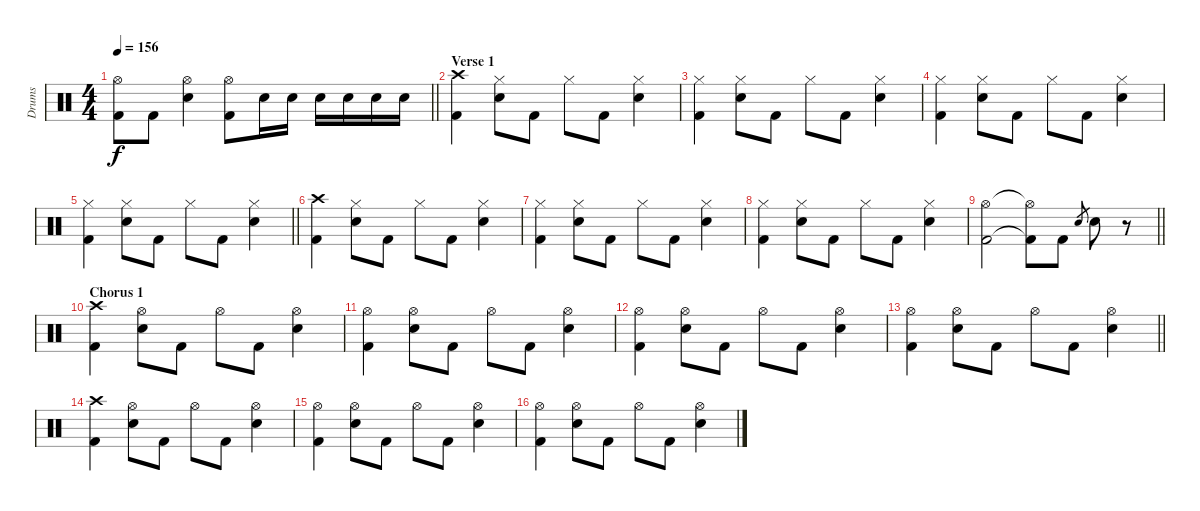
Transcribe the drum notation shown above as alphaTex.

\track ("Drums" "Drums") {instrument percussion}
\staff {score}
\articulation defaults
\ts (4 4)
\tempo 156
\clef neutral
\barLineRight lightlight
\ks c
("Hi-Hat (open)" "Kick (hit) 2").8{dy f} "Kick (hit) 2".8 ("Hi-Hat (open)" "Electric Snare (hit)").4 ("Hi-Hat (open)" "Kick (hit) 2").8 "Electric Snare (hit)".16 "Electric Snare (hit)".16 "Electric Snare (hit)".16 "Electric Snare (hit)".16 "Electric Snare (hit)".16 "Electric Snare (hit)".16 |
\section ("" "Verse 1")
("Crash high (hit)" "Kick (hit) 2").4 ("Hi-Hat (closed)" "Electric Snare (hit)").8 "Kick (hit) 2".8 "Hi-Hat (closed)".8 "Kick (hit) 2".8 ("Hi-Hat (closed)" "Electric Snare (hit)").4 |
("Hi-Hat (closed)" "Kick (hit) 2").4 ("Hi-Hat (closed)" "Electric Snare (hit)").8 "Kick (hit) 2".8 "Hi-Hat (closed)".8 "Kick (hit) 2".8 ("Hi-Hat (closed)" "Electric Snare (hit)").4 |
("Hi-Hat (closed)" "Kick (hit) 2").4 ("Hi-Hat (closed)" "Electric Snare (hit)").8 "Kick (hit) 2".8 "Hi-Hat (closed)".8 "Kick (hit) 2".8 ("Hi-Hat (closed)" "Electric Snare (hit)").4 |
\barLineRight lightlight
("Hi-Hat (closed)" "Kick (hit) 2").4 ("Hi-Hat (closed)" "Electric Snare (hit)").8 "Kick (hit) 2".8 "Hi-Hat (closed)".8 "Kick (hit) 2".8 ("Hi-Hat (closed)" "Electric Snare (hit)").4 |
("Crash high (hit)" "Kick (hit) 2").4 ("Hi-Hat (closed)" "Electric Snare (hit)").8 "Kick (hit) 2".8 "Hi-Hat (closed)".8 "Kick (hit) 2".8 ("Hi-Hat (closed)" "Electric Snare (hit)").4 |
("Hi-Hat (closed)" "Kick (hit) 2").4 ("Hi-Hat (closed)" "Electric Snare (hit)").8 "Kick (hit) 2".8 "Hi-Hat (closed)".8 "Kick (hit) 2".8 ("Hi-Hat (closed)" "Electric Snare (hit)").4 |
("Hi-Hat (closed)" "Kick (hit) 2").4 ("Hi-Hat (closed)" "Electric Snare (hit)").8 "Kick (hit) 2".8 "Hi-Hat (closed)".8 "Kick (hit) 2".8 ("Hi-Hat (closed)" "Electric Snare (hit)").4 |
\barLineRight lightlight
("Hi-Hat (open)" "Kick (hit) 2").2 ("Hi-Hat (open)"{t} "Kick (hit) 2"{t}).8 "Kick (hit) 2".8 "Electric Snare (hit)".8{gr} "Electric Snare (hit)".8 r.8 |
\section ("" "Chorus 1")
("Crash high (hit)" "Kick (hit) 2").4 ("Hi-Hat (open)" "Electric Snare (hit)").8 "Kick (hit) 2".8 "Hi-Hat (open)".8 "Kick (hit) 2".8 ("Hi-Hat (open)" "Electric Snare (hit)").4 |
("Hi-Hat (open)" "Kick (hit) 2").4 ("Hi-Hat (open)" "Electric Snare (hit)").8 "Kick (hit) 2".8 "Hi-Hat (open)".8 "Kick (hit) 2".8 ("Hi-Hat (open)" "Electric Snare (hit)").4 |
("Hi-Hat (open)" "Kick (hit) 2").4 ("Hi-Hat (open)" "Electric Snare (hit)").8 "Kick (hit) 2".8 "Hi-Hat (open)".8 "Kick (hit) 2".8 ("Hi-Hat (open)" "Electric Snare (hit)").4 |
\barLineRight lightlight
("Hi-Hat (open)" "Kick (hit) 2").4 ("Hi-Hat (open)" "Electric Snare (hit)").8 "Kick (hit) 2".8 "Hi-Hat (open)".8 "Kick (hit) 2".8 ("Hi-Hat (open)" "Electric Snare (hit)").4 |
("Crash high (hit)" "Kick (hit) 2").4 ("Hi-Hat (open)" "Electric Snare (hit)").8 "Kick (hit) 2".8 "Hi-Hat (open)".8 "Kick (hit) 2".8 ("Hi-Hat (open)" "Electric Snare (hit)").4 |
("Hi-Hat (open)" "Kick (hit) 2").4 ("Hi-Hat (open)" "Electric Snare (hit)").8 "Kick (hit) 2".8 "Hi-Hat (open)".8 "Kick (hit) 2".8 ("Hi-Hat (open)" "Electric Snare (hit)").4 |
("Hi-Hat (open)" "Kick (hit) 2").4 ("Hi-Hat (open)" "Electric Snare (hit)").8 "Kick (hit) 2".8 "Hi-Hat (open)".8 "Kick (hit) 2".8 ("Hi-Hat (open)" "Electric Snare (hit)").4
